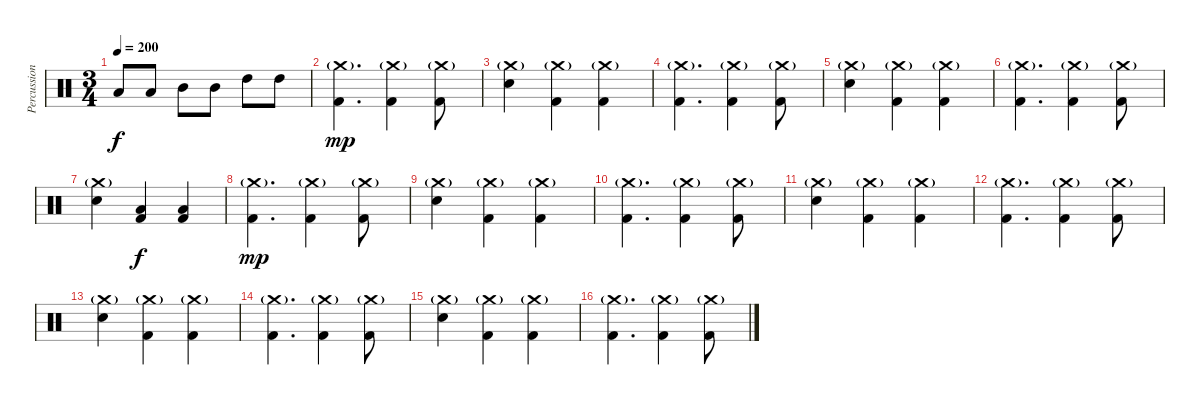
\track ("Percussions" "Percussion") {instrument percussion}
\staff {score}
\articulation defaults
\ts (3 4)
\tempo 200
\clef neutral
\ks c "Low Tom (hit)".8{dy f} "Low Tom (hit)".8 "Mid Tom (hit)".8 "Mid Tom (hit)".8 "High Tom (hit)".8 "High Tom (hit)".8
|
("Crash medium (hit)"{g} "Kick (hit) 2").4{d dy mp} ("Crash medium (hit)"{g} "Kick (hit) 2").4 ("Crash medium (hit)"{g} "Kick (hit) 2").8 |
("Crash medium (hit)"{g} "Electric Snare (hit)").4 ("Crash medium (hit)"{g} "Kick (hit) 2").4 ("Crash medium (hit)"{g} "Kick (hit) 2").4 |
("Crash medium (hit)"{g} "Kick (hit) 2").4{d} ("Crash medium (hit)"{g} "Kick (hit) 2").4 ("Crash medium (hit)"{g} "Kick (hit) 2").8 |
("Crash medium (hit)"{g} "Electric Snare (hit)").4 ("Crash medium (hit)"{g} "Kick (hit) 2").4 ("Crash medium (hit)"{g} "Kick (hit) 2").4 |
("Crash medium (hit)"{g} "Kick (hit) 2").4{d} ("Crash medium (hit)"{g} "Kick (hit) 2").4 ("Crash medium (hit)"{g} "Kick (hit) 2").8 |
("Crash medium (hit)"{g} "Electric Snare (hit)").4 ("Low Tom (hit)" "Kick (hit) 2").4{dy f} ("Low Tom (hit)" "Kick (hit) 2").4 |
("Crash medium (hit)"{g} "Kick (hit) 2").4{d dy mp} ("Crash medium (hit)"{g} "Kick (hit) 2").4 ("Crash medium (hit)"{g} "Kick (hit) 2").8 |
("Crash medium (hit)"{g} "Electric Snare (hit)").4 ("Crash medium (hit)"{g} "Kick (hit) 2").4 ("Crash medium (hit)"{g} "Kick (hit) 2").4 |
("Crash medium (hit)"{g} "Kick (hit) 2").4{d} ("Crash medium (hit)"{g} "Kick (hit) 2").4 ("Crash medium (hit)"{g} "Kick (hit) 2").8 |
("Crash medium (hit)"{g} "Electric Snare (hit)").4 ("Crash medium (hit)"{g} "Kick (hit) 2").4 ("Crash medium (hit)"{g} "Kick (hit) 2").4 |
("Crash medium (hit)"{g} "Kick (hit) 2").4{d} ("Crash medium (hit)"{g} "Kick (hit) 2").4 ("Crash medium (hit)"{g} "Kick (hit) 2").8 |
("Crash medium (hit)"{g} "Electric Snare (hit)").4 ("Crash medium (hit)"{g} "Kick (hit) 2").4 ("Crash medium (hit)"{g} "Kick (hit) 2").4 |
("Crash medium (hit)"{g} "Kick (hit) 2").4{d} ("Crash medium (hit)"{g} "Kick (hit) 2").4 ("Crash medium (hit)"{g} "Kick (hit) 2").8 |
("Crash medium (hit)"{g} "Electric Snare (hit)").4 ("Crash medium (hit)"{g} "Kick (hit) 2").4 ("Crash medium (hit)"{g} "Kick (hit) 2").4 |
("Crash medium (hit)"{g} "Kick (hit) 2").4{d} ("Crash medium (hit)"{g} "Kick (hit) 2").4 ("Crash medium (hit)"{g} "Kick (hit) 2").8
